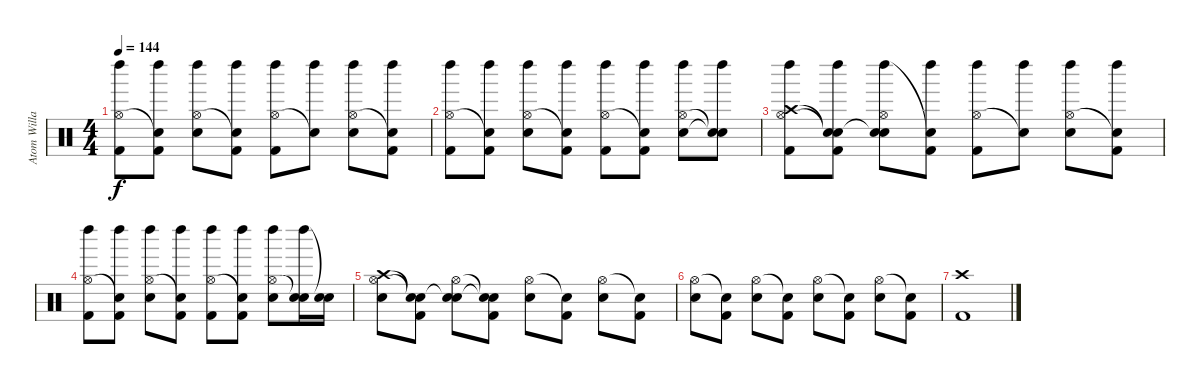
\track ("Atom Willard (Drums)" "Atom Willa") {instrument percussion}
\staff {score}
\articulation defaults
\ts (4 4)
\tempo 144
\clef neutral
\ks c
("Left Maraca (hit)" "Hi-Hat (open)" "Kick (hit) 2").8{dy f} ("Left Maraca (hit)" "Snare (hit)"{t} "Kick (hit) 2").8 ("Left Maraca (hit)" "Hi-Hat (open)" "Electric Snare (hit)").8 ("Left Maraca (hit)" "Snare (hit)"{t} "Kick (hit) 2").8 ("Left Maraca (hit)" "Hi-Hat (open)" "Kick (hit) 2").8 ("Left Maraca (hit)" "Snare (hit)"{t}).8 ("Left Maraca (hit)" "Hi-Hat (open)" "Electric Snare (hit)").8 ("Left Maraca (hit)" "Snare (hit)"{t} "Kick (hit) 2").8 |
("Left Maraca (hit)" "Hi-Hat (open)" "Kick (hit) 2").8 ("Left Maraca (hit)" "Snare (hit)"{t} "Kick (hit) 2").8 ("Left Maraca (hit)" "Hi-Hat (open)" "Electric Snare (hit)").8 ("Left Maraca (hit)" "Snare (hit)"{t} "Kick (hit) 2").8 ("Left Maraca (hit)" "Hi-Hat (open)" "Kick (hit) 2").8 ("Left Maraca (hit)" "Snare (hit)"{t} "Kick (hit) 2").8 ("Left Maraca (hit)" "Hi-Hat (open)" "Electric Snare (hit)").8 ("Left Maraca (hit)" "Snare (hit)"{t} "Snare (hit)"{t}).8 |
("Crash high (hit)" "Left Maraca (hit)" "Hi-Hat (open)" "Kick (hit) 2").8 ("Snare (hit)"{t} "Left Maraca (hit)" "Snare (hit)"{t} "Kick (hit) 2").8 ("Snare (hit)"{t} "Left Maraca (hit)" "Hi-Hat (open)" "Electric Snare (hit)").8 ("Left Maraca (hit)" "Snare (hit)"{t} "Kick (hit) 2").8 ("Left Maraca (hit)" "Hi-Hat (open)" "Kick (hit) 2").8 ("Left Maraca (hit)" "Snare (hit)"{t}).8 ("Left Maraca (hit)" "Hi-Hat (open)" "Electric Snare (hit)").8 ("Left Maraca (hit)" "Snare (hit)"{t} "Kick (hit) 2").8 |
("Left Maraca (hit)" "Hi-Hat (open)" "Kick (hit) 2").8 ("Left Maraca (hit)" "Snare (hit)"{t} "Kick (hit) 2").8 ("Left Maraca (hit)" "Hi-Hat (open)" "Electric Snare (hit)").8 ("Left Maraca (hit)" "Snare (hit)"{t} "Kick (hit) 2").8 ("Left Maraca (hit)" "Hi-Hat (open)" "Kick (hit) 2").8 ("Left Maraca (hit)" "Snare (hit)"{t} "Kick (hit) 2").8 ("Left Maraca (hit)" "Hi-Hat (open)" "Electric Snare (hit)").8 ("Left Maraca (hit)" "Snare (hit)"{t} "Electric Snare (hit)").16 ("Snare (hit)"{t} "Electric Snare (hit)").16 |
("Crash high (hit)" "Hi-Hat (open)" "Electric Snare (hit)").8 ("Snare (hit)"{t} "Snare (hit)"{t} "Kick (hit) 2").8 ("Snare (hit)"{t} "Hi-Hat (open)" "Electric Snare (hit)").8 ("Snare (hit)"{t} "Snare (hit)"{t} "Kick (hit) 2").8 ("Hi-Hat (open)" "Electric Snare (hit)").8 ("Snare (hit)"{t} "Kick (hit) 2").8 ("Hi-Hat (open)" "Electric Snare (hit)").8 ("Snare (hit)"{t} "Kick (hit) 2").8 |
("Hi-Hat (open)" "Electric Snare (hit)").8 ("Snare (hit)"{t} "Kick (hit) 2").8 ("Hi-Hat (open)" "Electric Snare (hit)").8 ("Snare (hit)"{t} "Kick (hit) 2").8 ("Hi-Hat (open)" "Electric Snare (hit)").8 ("Snare (hit)"{t} "Kick (hit) 2").8 ("Hi-Hat (open)" "Electric Snare (hit)").8 ("Snare (hit)"{t} "Kick (hit) 2").8 |
("Crash high (hit)" "Kick (hit) 2").1
